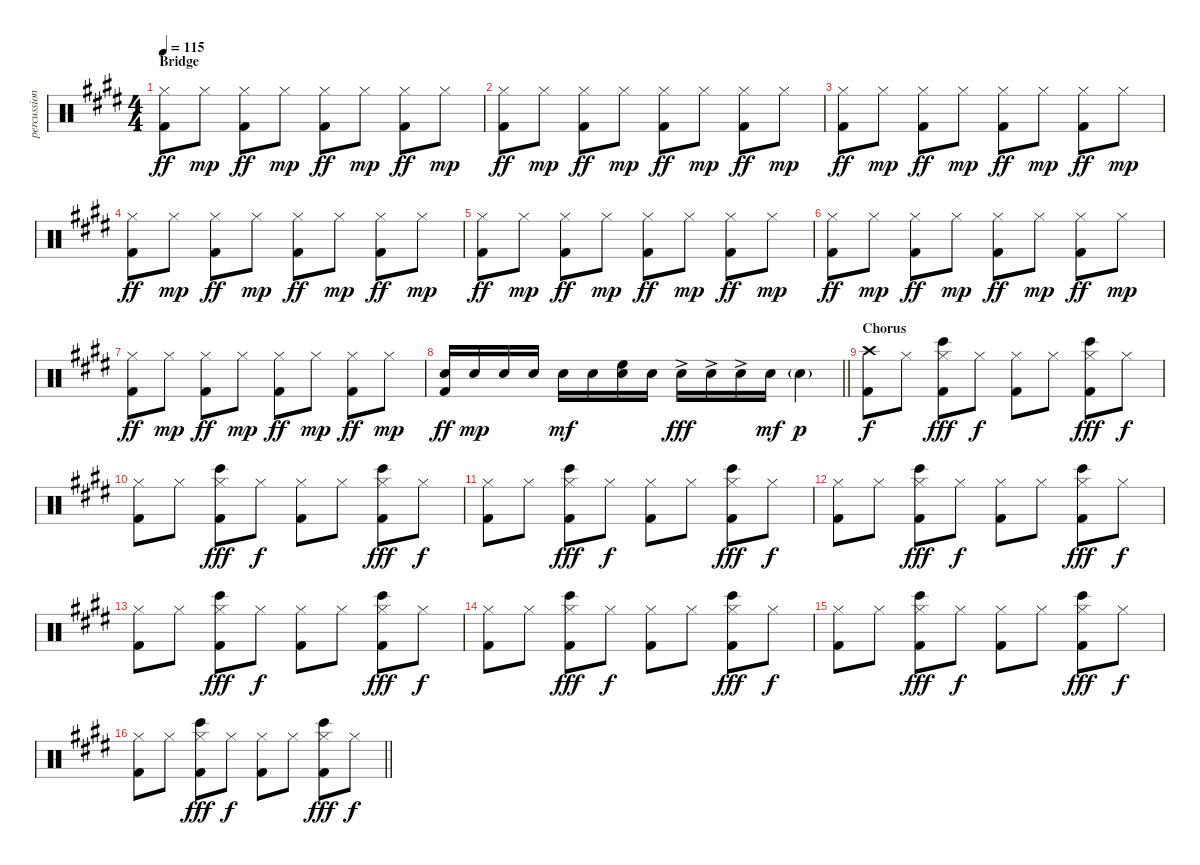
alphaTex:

\track ("percussion" "percussion") {instrument percussion}
\staff {score}
\articulation defaults
\ts (4 4)
\section ("" "Bridge")
\tempo 115
\clef neutral
\ks c#minor
("Hi-Hat (closed)" "Kick (hit) 2").8{dy ff} "Hi-Hat (closed)".8{dy mp} ("Hi-Hat (closed)" "Kick (hit) 2").8{dy ff} "Hi-Hat (closed)".8{dy mp} ("Hi-Hat (closed)" "Kick (hit) 2").8{dy ff} "Hi-Hat (closed)".8{dy mp} ("Hi-Hat (closed)" "Kick (hit) 2").8{dy ff} "Hi-Hat (closed)".8{dy mp} |
("Hi-Hat (closed)" "Kick (hit) 2").8{dy ff} "Hi-Hat (closed)".8{dy mp} ("Hi-Hat (closed)" "Kick (hit) 2").8{dy ff} "Hi-Hat (closed)".8{dy mp} ("Hi-Hat (closed)" "Kick (hit) 2").8{dy ff} "Hi-Hat (closed)".8{dy mp} ("Hi-Hat (closed)" "Kick (hit) 2").8{dy ff} "Hi-Hat (closed)".8{dy mp} |
("Hi-Hat (closed)" "Kick (hit) 2").8{dy ff} "Hi-Hat (closed)".8{dy mp} ("Hi-Hat (closed)" "Kick (hit) 2").8{dy ff} "Hi-Hat (closed)".8{dy mp} ("Hi-Hat (closed)" "Kick (hit) 2").8{dy ff} "Hi-Hat (closed)".8{dy mp} ("Hi-Hat (closed)" "Kick (hit) 2").8{dy ff} "Hi-Hat (closed)".8{dy mp} |
("Hi-Hat (closed)" "Kick (hit) 2").8{dy ff} "Hi-Hat (closed)".8{dy mp} ("Hi-Hat (closed)" "Kick (hit) 2").8{dy ff} "Hi-Hat (closed)".8{dy mp} ("Hi-Hat (closed)" "Kick (hit) 2").8{dy ff} "Hi-Hat (closed)".8{dy mp} ("Hi-Hat (closed)" "Kick (hit) 2").8{dy ff} "Hi-Hat (closed)".8{dy mp} |
("Hi-Hat (closed)" "Kick (hit) 2").8{dy ff} "Hi-Hat (closed)".8{dy mp} ("Hi-Hat (closed)" "Kick (hit) 2").8{dy ff} "Hi-Hat (closed)".8{dy mp} ("Hi-Hat (closed)" "Kick (hit) 2").8{dy ff} "Hi-Hat (closed)".8{dy mp} ("Hi-Hat (closed)" "Kick (hit) 2").8{dy ff} "Hi-Hat (closed)".8{dy mp} |
("Hi-Hat (closed)" "Kick (hit) 2").8{dy ff} "Hi-Hat (closed)".8{dy mp} ("Hi-Hat (closed)" "Kick (hit) 2").8{dy ff} "Hi-Hat (closed)".8{dy mp} ("Hi-Hat (closed)" "Kick (hit) 2").8{dy ff} "Hi-Hat (closed)".8{dy mp} ("Hi-Hat (closed)" "Kick (hit) 2").8{dy ff} "Hi-Hat (closed)".8{dy mp} |
("Hi-Hat (closed)" "Kick (hit) 2").8{dy ff} "Hi-Hat (closed)".8{dy mp} ("Hi-Hat (closed)" "Kick (hit) 2").8{dy ff} "Hi-Hat (closed)".8{dy mp} ("Hi-Hat (closed)" "Kick (hit) 2").8{dy ff} "Hi-Hat (closed)".8{dy mp} ("Hi-Hat (closed)" "Kick (hit) 2").8{dy ff} "Hi-Hat (closed)".8{dy mp} |
\barLineRight lightlight
("Snare (hit) 2" "Kick (hit) 2").16{dy ff} "Snare (hit) 2".16{dy mp} "Snare (hit) 2".16 "Snare (hit) 2".16 "Snare (hit) 2".16{dy mf} "Snare (hit) 2".16 ("High Floor Tom (hit)" "Snare (hit) 2").16 "Snare (hit) 2".16 "Snare (hit) 2"{ac}.16{dy fff} "Snare (hit) 2"{ac}.16 "Snare (hit) 2"{ac}.16 "Snare (hit) 2".16{dy mf} "Snare (hit) 2"{g}.4{dy p} |
\section ("" "Chorus")
("Crash high (hit)" "Kick (hit) 2").8{dy f} "Hi-Hat (closed)".8 ("Bongo High (hit)" "Hi-Hat (closed)" "Kick (hit) 2").8{dy fff} "Hi-Hat (closed)".8{dy f} ("Hi-Hat (closed)" "Kick (hit) 2").8 "Hi-Hat (closed)".8 ("Bongo High (hit)" "Hi-Hat (closed)" "Kick (hit) 2").8{dy fff} "Hi-Hat (closed)".8{dy f} |
("Hi-Hat (closed)" "Kick (hit) 2").8 "Hi-Hat (closed)".8 ("Bongo High (hit)" "Hi-Hat (closed)" "Kick (hit) 2").8{dy fff} "Hi-Hat (closed)".8{dy f} ("Hi-Hat (closed)" "Kick (hit) 2").8 "Hi-Hat (closed)".8 ("Bongo High (hit)" "Hi-Hat (closed)" "Kick (hit) 2").8{dy fff} "Hi-Hat (closed)".8{dy f} |
("Hi-Hat (closed)" "Kick (hit) 2").8 "Hi-Hat (closed)".8 ("Bongo High (hit)" "Hi-Hat (closed)" "Kick (hit) 2").8{dy fff} "Hi-Hat (closed)".8{dy f} ("Hi-Hat (closed)" "Kick (hit) 2").8 "Hi-Hat (closed)".8 ("Bongo High (hit)" "Hi-Hat (closed)" "Kick (hit) 2").8{dy fff} "Hi-Hat (closed)".8{dy f} |
("Hi-Hat (closed)" "Kick (hit) 2").8 "Hi-Hat (closed)".8 ("Bongo High (hit)" "Hi-Hat (closed)" "Kick (hit) 2").8{dy fff} "Hi-Hat (closed)".8{dy f} ("Hi-Hat (closed)" "Kick (hit) 2").8 "Hi-Hat (closed)".8 ("Bongo High (hit)" "Hi-Hat (closed)" "Kick (hit) 2").8{dy fff} "Hi-Hat (closed)".8{dy f} |
("Hi-Hat (closed)" "Kick (hit) 2").8 "Hi-Hat (closed)".8 ("Bongo High (hit)" "Hi-Hat (closed)" "Kick (hit) 2").8{dy fff} "Hi-Hat (closed)".8{dy f} ("Hi-Hat (closed)" "Kick (hit) 2").8 "Hi-Hat (closed)".8 ("Bongo High (hit)" "Hi-Hat (closed)" "Kick (hit) 2").8{dy fff} "Hi-Hat (closed)".8{dy f} |
("Hi-Hat (closed)" "Kick (hit) 2").8 "Hi-Hat (closed)".8 ("Bongo High (hit)" "Hi-Hat (closed)" "Kick (hit) 2").8{dy fff} "Hi-Hat (closed)".8{dy f} ("Hi-Hat (closed)" "Kick (hit) 2").8 "Hi-Hat (closed)".8 ("Bongo High (hit)" "Hi-Hat (closed)" "Kick (hit) 2").8{dy fff} "Hi-Hat (closed)".8{dy f} |
("Hi-Hat (closed)" "Kick (hit) 2").8 "Hi-Hat (closed)".8 ("Bongo High (hit)" "Hi-Hat (closed)" "Kick (hit) 2").8{dy fff} "Hi-Hat (closed)".8{dy f} ("Hi-Hat (closed)" "Kick (hit) 2").8 "Hi-Hat (closed)".8 ("Bongo High (hit)" "Hi-Hat (closed)" "Kick (hit) 2").8{dy fff} "Hi-Hat (closed)".8{dy f} |
\barLineRight lightlight
("Hi-Hat (closed)" "Kick (hit) 2").8 "Hi-Hat (closed)".8 ("Bongo High (hit)" "Hi-Hat (closed)" "Kick (hit) 2").8{dy fff} "Hi-Hat (closed)".8{dy f} ("Hi-Hat (closed)" "Kick (hit) 2").8 "Hi-Hat (closed)".8 ("Bongo High (hit)" "Hi-Hat (closed)" "Kick (hit) 2").8{dy fff} "Hi-Hat (closed)".8{dy f}
